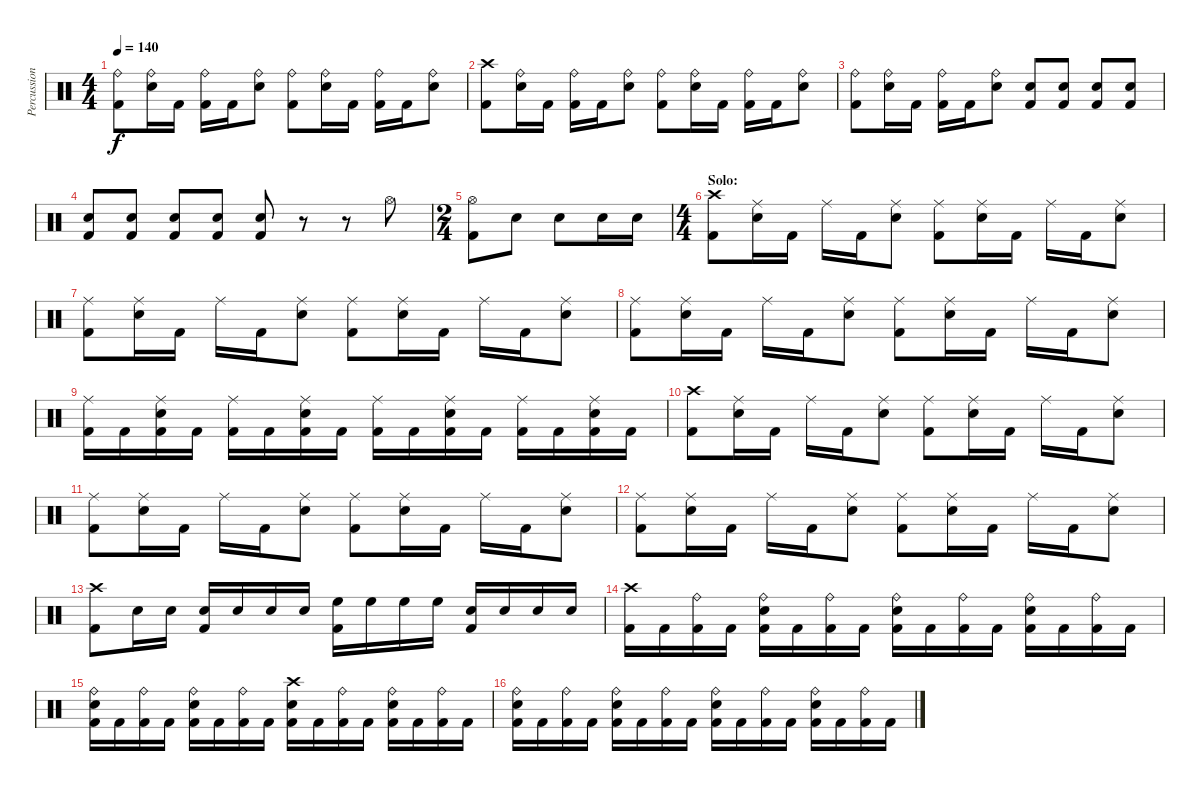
\track ("Percussion" "Percussion") {instrument percussion}
\staff {score}
\articulation defaults
\ts (4 4)
\tempo 140
\clef neutral
\ks c
("Ride (bell)" "Kick (hit) 2").8{dy f} ("Ride (bell)" "Electric Snare (hit)").16 "Kick (hit) 2".16 ("Ride (bell)" "Kick (hit) 2").16 "Kick (hit) 2".16 ("Ride (bell)" "Electric Snare (hit)").8 ("Ride (bell)" "Kick (hit) 2").8 ("Ride (bell)" "Electric Snare (hit)").16 "Kick (hit) 2".16 ("Ride (bell)" "Kick (hit) 2").16 "Kick (hit) 2".16 ("Ride (bell)" "Electric Snare (hit)").8 |
("Crash high (hit)" "Kick (hit) 2").8 ("Ride (bell)" "Electric Snare (hit)").16 "Kick (hit) 2".16 ("Ride (bell)" "Kick (hit) 2").16 "Kick (hit) 2".16 ("Ride (bell)" "Electric Snare (hit)").8 ("Ride (bell)" "Kick (hit) 2").8 ("Ride (bell)" "Electric Snare (hit)").16 "Kick (hit) 2".16 ("Ride (bell)" "Kick (hit) 2").16 "Kick (hit) 2".16 ("Ride (bell)" "Electric Snare (hit)").8 |
("Ride (bell)" "Kick (hit) 2").8 ("Ride (bell)" "Electric Snare (hit)").16 "Kick (hit) 2".16 ("Ride (bell)" "Kick (hit) 2").16 "Kick (hit) 2".16 ("Ride (bell)" "Electric Snare (hit)").8 ("Electric Snare (hit)" "Kick (hit) 2").8 ("Electric Snare (hit)" "Kick (hit) 2").8 ("Electric Snare (hit)" "Kick (hit) 2").8 ("Electric Snare (hit)" "Kick (hit) 2").8 |
("Electric Snare (hit)" "Kick (hit) 2").8 ("Electric Snare (hit)" "Kick (hit) 2").8 ("Electric Snare (hit)" "Kick (hit) 2").8 ("Electric Snare (hit)" "Kick (hit) 2").8 ("Electric Snare (hit)" "Kick (hit) 2").8 r.8 r.8 "Hi-Hat (open)".8 |
\ts (2 4)
("Hi-Hat (open)" "Kick (hit) 2").8 "Electric Snare (hit)".8 "Electric Snare (hit)".8 "Electric Snare (hit)".16 "Electric Snare (hit)".16 |
\ts (4 4)
\section ("" "Solo:")
("Crash high (hit)" "Kick (hit) 2").8 ("Ride (middle)" "Electric Snare (hit)").16 "Kick (hit) 2".16 "Ride (middle)".16 "Kick (hit) 2".16 ("Ride (middle)" "Electric Snare (hit)").8 ("Ride (middle)" "Kick (hit) 2").8 ("Ride (middle)" "Electric Snare (hit)").16 "Kick (hit) 2".16 "Ride (middle)".16 "Kick (hit) 2".16 ("Ride (middle)" "Electric Snare (hit)").8 |
("Ride (middle)" "Kick (hit) 2").8 ("Ride (middle)" "Electric Snare (hit)").16 "Kick (hit) 2".16 "Ride (middle)".16 "Kick (hit) 2".16 ("Ride (middle)" "Electric Snare (hit)").8 ("Ride (middle)" "Kick (hit) 2").8 ("Ride (middle)" "Electric Snare (hit)").16 "Kick (hit) 2".16 "Ride (middle)".16 "Kick (hit) 2".16 ("Ride (middle)" "Electric Snare (hit)").8 |
("Ride (middle)" "Kick (hit) 2").8 ("Ride (middle)" "Electric Snare (hit)").16 "Kick (hit) 2".16 "Ride (middle)".16 "Kick (hit) 2".16 ("Ride (middle)" "Electric Snare (hit)").8 ("Ride (middle)" "Kick (hit) 2").8 ("Ride (middle)" "Electric Snare (hit)").16 "Kick (hit) 2".16 "Ride (middle)".16 "Kick (hit) 2".16 ("Ride (middle)" "Electric Snare (hit)").8 |
("Ride (middle)" "Kick (hit) 2").16 "Kick (hit) 2".16 ("Ride (middle)" "Electric Snare (hit)" "Kick (hit) 2").16 "Kick (hit) 2".16 ("Ride (middle)" "Kick (hit) 2").16 "Kick (hit) 2".16 ("Ride (middle)" "Electric Snare (hit)" "Kick (hit) 2").16 "Kick (hit) 2".16 ("Ride (middle)" "Kick (hit) 2").16 "Kick (hit) 2".16 ("Ride (middle)" "Electric Snare (hit)" "Kick (hit) 2").16 "Kick (hit) 2".16 ("Ride (middle)" "Kick (hit) 2").16 "Kick (hit) 2".16 ("Ride (middle)" "Electric Snare (hit)" "Kick (hit) 2").16 "Kick (hit) 2".16 |
("Crash high (hit)" "Kick (hit) 2").8 ("Ride (middle)" "Electric Snare (hit)").16 "Kick (hit) 2".16 "Ride (middle)".16 "Kick (hit) 2".16 ("Ride (middle)" "Electric Snare (hit)").8 ("Ride (middle)" "Kick (hit) 2").8 ("Ride (middle)" "Electric Snare (hit)").16 "Kick (hit) 2".16 "Ride (middle)".16 "Kick (hit) 2".16 ("Ride (middle)" "Electric Snare (hit)").8 |
("Ride (middle)" "Kick (hit) 2").8 ("Ride (middle)" "Electric Snare (hit)").16 "Kick (hit) 2".16 "Ride (middle)".16 "Kick (hit) 2".16 ("Ride (middle)" "Electric Snare (hit)").8 ("Ride (middle)" "Kick (hit) 2").8 ("Ride (middle)" "Electric Snare (hit)").16 "Kick (hit) 2".16 "Ride (middle)".16 "Kick (hit) 2".16 ("Ride (middle)" "Electric Snare (hit)").8 |
("Ride (middle)" "Kick (hit) 2").8 ("Ride (middle)" "Electric Snare (hit)").16 "Kick (hit) 2".16 "Ride (middle)".16 "Kick (hit) 2".16 ("Ride (middle)" "Electric Snare (hit)").8 ("Ride (middle)" "Kick (hit) 2").8 ("Ride (middle)" "Electric Snare (hit)").16 "Kick (hit) 2".16 "Ride (middle)".16 "Kick (hit) 2".16 ("Ride (middle)" "Electric Snare (hit)").8 |
("Crash high (hit)" "Kick (hit) 2").8 "Electric Snare (hit)".16 "Electric Snare (hit)".16 ("Electric Snare (hit)" "Kick (hit) 2").16 "Electric Snare (hit)".16 "Electric Snare (hit)".16 "Electric Snare (hit)".16 ("High Floor Tom (hit)" "Kick (hit) 2").16 "High Floor Tom (hit)".16 "High Floor Tom (hit)".16 "High Floor Tom (hit)".16 ("Electric Snare (hit)" "Kick (hit) 2").16 "Electric Snare (hit)".16 "Electric Snare (hit)".16 "Electric Snare (hit)".16 |
("Crash high (hit)" "Kick (hit) 2").16 "Kick (hit) 2".16 ("Ride (bell)" "Kick (hit) 2").16 "Kick (hit) 2".16 ("Ride (bell)" "Electric Snare (hit)" "Kick (hit) 2").16 "Kick (hit) 2".16 ("Ride (bell)" "Kick (hit) 2").16 "Kick (hit) 2".16 ("Ride (bell)" "Electric Snare (hit)" "Kick (hit) 2").16 "Kick (hit) 2".16 ("Ride (bell)" "Kick (hit) 2").16 "Kick (hit) 2".16 ("Ride (bell)" "Electric Snare (hit)" "Kick (hit) 2").16 "Kick (hit) 2".16 ("Ride (bell)" "Kick (hit) 2").16 "Kick (hit) 2".16 |
("Ride (bell)" "Electric Snare (hit)" "Kick (hit) 2").16 "Kick (hit) 2".16 ("Ride (bell)" "Kick (hit) 2").16 "Kick (hit) 2".16 ("Ride (bell)" "Electric Snare (hit)" "Kick (hit) 2").16 "Kick (hit) 2".16 ("Ride (bell)" "Kick (hit) 2").16 "Kick (hit) 2".16 ("Crash high (hit)" "Electric Snare (hit)" "Kick (hit) 2").16 "Kick (hit) 2".16 ("Ride (bell)" "Kick (hit) 2").16 "Kick (hit) 2".16 ("Ride (bell)" "Electric Snare (hit)" "Kick (hit) 2").16 "Kick (hit) 2".16 ("Ride (bell)" "Kick (hit) 2").16 "Kick (hit) 2".16 |
("Ride (bell)" "Electric Snare (hit)" "Kick (hit) 2").16 "Kick (hit) 2".16 ("Ride (bell)" "Kick (hit) 2").16 "Kick (hit) 2".16 ("Ride (bell)" "Electric Snare (hit)" "Kick (hit) 2").16 "Kick (hit) 2".16 ("Ride (bell)" "Kick (hit) 2").16 "Kick (hit) 2".16 ("Ride (bell)" "Electric Snare (hit)" "Kick (hit) 2").16 "Kick (hit) 2".16 ("Ride (bell)" "Kick (hit) 2").16 "Kick (hit) 2".16 ("Ride (bell)" "Electric Snare (hit)" "Kick (hit) 2").16 "Kick (hit) 2".16 ("Ride (bell)" "Kick (hit) 2").16 "Kick (hit) 2".16
